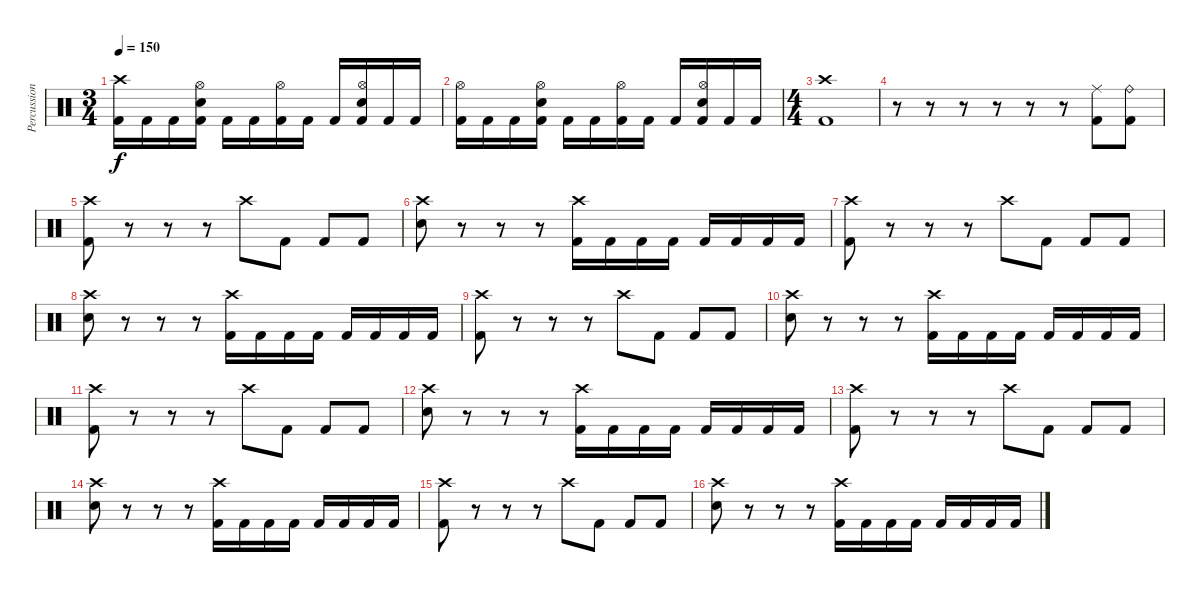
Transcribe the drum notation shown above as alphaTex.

\track ("Percussion" "Percussion") {instrument percussion}
\staff {score}
\articulation defaults
\ts (3 4)
\tempo 150
\clef neutral
\ks c
("Crash high (hit)" "Kick (hit) 2").16{dy f} "Kick (hit) 2".16 "Kick (hit) 2".16 ("Hi-Hat (open)" "Electric Snare (hit)" "Kick (hit) 2").16 "Kick (hit) 2".16 "Kick (hit) 2".16 ("Hi-Hat (open)" "Kick (hit) 2").16 "Kick (hit) 2".16 "Kick (hit) 2".16 ("Hi-Hat (open)" "Electric Snare (hit)" "Kick (hit) 2").16 "Kick (hit) 2".16 "Kick (hit) 2".16 |
("Hi-Hat (open)" "Kick (hit) 2").16 "Kick (hit) 2".16 "Kick (hit) 2".16 ("Hi-Hat (open)" "Electric Snare (hit)" "Kick (hit) 2").16 "Kick (hit) 2".16 "Kick (hit) 2".16 ("Hi-Hat (open)" "Kick (hit) 2").16 "Kick (hit) 2".16 "Kick (hit) 2".16 ("Hi-Hat (open)" "Electric Snare (hit)" "Kick (hit) 2").16 "Kick (hit) 2".16 "Kick (hit) 2".16 |
\ts (4 4)
("Crash high (hit)" "Kick (hit) 2").1 |
r.8 r.8 r.8 r.8 r.8 r.8 ("Ride (middle)" "Kick (hit) 2").8 ("Ride (bell)" "Kick (hit) 2").8 |
("Crash high (hit)" "Kick (hit) 2").8 r.8 r.8 r.8 "Crash high (hit)".8 "Kick (hit) 2".8 "Kick (hit) 2".8 "Kick (hit) 2".8 |
("Crash high (hit)" "Electric Snare (hit)").8 r.8 r.8 r.8 ("Crash high (hit)" "Kick (hit) 2").16 "Kick (hit) 2".16 "Kick (hit) 2".16 "Kick (hit) 2".16 "Kick (hit) 2".16 "Kick (hit) 2".16 "Kick (hit) 2".16 "Kick (hit) 2".16 |
("Crash high (hit)" "Kick (hit) 2").8 r.8 r.8 r.8 "Crash high (hit)".8 "Kick (hit) 2".8 "Kick (hit) 2".8 "Kick (hit) 2".8 |
("Crash high (hit)" "Electric Snare (hit)").8 r.8 r.8 r.8 ("Crash high (hit)" "Kick (hit) 2").16 "Kick (hit) 2".16 "Kick (hit) 2".16 "Kick (hit) 2".16 "Kick (hit) 2".16 "Kick (hit) 2".16 "Kick (hit) 2".16 "Kick (hit) 2".16 |
("Crash high (hit)" "Kick (hit) 2").8 r.8 r.8 r.8 "Crash high (hit)".8 "Kick (hit) 2".8 "Kick (hit) 2".8 "Kick (hit) 2".8 |
("Crash high (hit)" "Electric Snare (hit)").8 r.8 r.8 r.8 ("Crash high (hit)" "Kick (hit) 2").16 "Kick (hit) 2".16 "Kick (hit) 2".16 "Kick (hit) 2".16 "Kick (hit) 2".16 "Kick (hit) 2".16 "Kick (hit) 2".16 "Kick (hit) 2".16 |
("Crash high (hit)" "Kick (hit) 2").8 r.8 r.8 r.8 "Crash high (hit)".8 "Kick (hit) 2".8 "Kick (hit) 2".8 "Kick (hit) 2".8 |
("Crash high (hit)" "Electric Snare (hit)").8 r.8 r.8 r.8 ("Crash high (hit)" "Kick (hit) 2").16 "Kick (hit) 2".16 "Kick (hit) 2".16 "Kick (hit) 2".16 "Kick (hit) 2".16 "Kick (hit) 2".16 "Kick (hit) 2".16 "Kick (hit) 2".16 |
("Crash high (hit)" "Kick (hit) 2").8 r.8 r.8 r.8 "Crash high (hit)".8 "Kick (hit) 2".8 "Kick (hit) 2".8 "Kick (hit) 2".8 |
("Crash high (hit)" "Electric Snare (hit)").8 r.8 r.8 r.8 ("Crash high (hit)" "Kick (hit) 2").16 "Kick (hit) 2".16 "Kick (hit) 2".16 "Kick (hit) 2".16 "Kick (hit) 2".16 "Kick (hit) 2".16 "Kick (hit) 2".16 "Kick (hit) 2".16 |
("Crash high (hit)" "Kick (hit) 2").8 r.8 r.8 r.8 "Crash high (hit)".8 "Kick (hit) 2".8 "Kick (hit) 2".8 "Kick (hit) 2".8 |
("Crash high (hit)" "Electric Snare (hit)").8 r.8 r.8 r.8 ("Crash high (hit)" "Kick (hit) 2").16 "Kick (hit) 2".16 "Kick (hit) 2".16 "Kick (hit) 2".16 "Kick (hit) 2".16 "Kick (hit) 2".16 "Kick (hit) 2".16 "Kick (hit) 2".16
